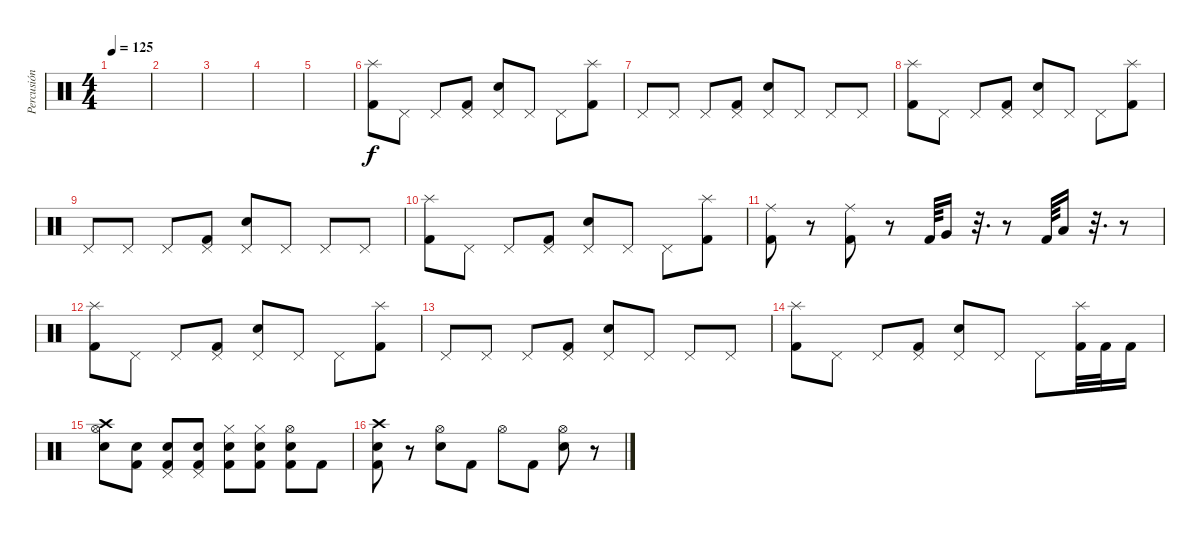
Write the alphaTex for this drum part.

\track ("Percusión" "Percusión") {instrument percussion}
\staff {score}
\articulation defaults
\ts (4 4)
\tempo 125
\clef neutral
\ks c
|
|
|
|
|
("Splash (hit)" "Kick (hit) 2").8 "Pedal Hi-Hat (hit)".8 "Pedal Hi-Hat (hit)".8 ("Pedal Hi-Hat (hit)" "Kick (hit) 2").8 ("Pedal Hi-Hat (hit)" "Electric Snare (hit)").8 "Pedal Hi-Hat (hit)".8 "Pedal Hi-Hat (hit)".8 ("Splash (hit)" "Kick (hit) 2").8 |
"Pedal Hi-Hat (hit)".8 "Pedal Hi-Hat (hit)".8 "Pedal Hi-Hat (hit)".8 ("Pedal Hi-Hat (hit)" "Kick (hit) 2").8 ("Pedal Hi-Hat (hit)" "Electric Snare (hit)").8 "Pedal Hi-Hat (hit)".8 "Pedal Hi-Hat (hit)".8 "Pedal Hi-Hat (hit)".8 |
("Splash (hit)" "Kick (hit) 2").8 "Pedal Hi-Hat (hit)".8 "Pedal Hi-Hat (hit)".8 ("Pedal Hi-Hat (hit)" "Kick (hit) 2").8 ("Pedal Hi-Hat (hit)" "Electric Snare (hit)").8 "Pedal Hi-Hat (hit)".8 "Pedal Hi-Hat (hit)".8 ("Splash (hit)" "Kick (hit) 2").8 |
"Pedal Hi-Hat (hit)".8 "Pedal Hi-Hat (hit)".8 "Pedal Hi-Hat (hit)".8 ("Pedal Hi-Hat (hit)" "Kick (hit) 2").8 ("Pedal Hi-Hat (hit)" "Electric Snare (hit)").8 "Pedal Hi-Hat (hit)".8 "Pedal Hi-Hat (hit)".8 "Pedal Hi-Hat (hit)".8 |
("Splash (hit)" "Kick (hit) 2").8 "Pedal Hi-Hat (hit)".8 "Pedal Hi-Hat (hit)".8 ("Pedal Hi-Hat (hit)" "Kick (hit) 2").8 ("Pedal Hi-Hat (hit)" "Electric Snare (hit)").8 "Pedal Hi-Hat (hit)".8 "Pedal Hi-Hat (hit)".8 ("Splash (hit)" "Kick (hit) 2").8 |
("Kick (hit) 2" "Ride (middle)").8 r.8 ("Kick (hit) 2" "Ride (middle)").8 r.8 "Kick (hit) 2".64 "Very Low Tom (hit)".16 r.32{d} r.8 "Kick (hit) 2".64 "Low Floor Tom (hit)".16 r.32{d} r.8 |
("Splash (hit)" "Kick (hit) 2").8 "Pedal Hi-Hat (hit)".8 "Pedal Hi-Hat (hit)".8 ("Pedal Hi-Hat (hit)" "Kick (hit) 2").8 ("Pedal Hi-Hat (hit)" "Electric Snare (hit)").8 "Pedal Hi-Hat (hit)".8 "Pedal Hi-Hat (hit)".8 ("Splash (hit)" "Kick (hit) 2").8 |
"Pedal Hi-Hat (hit)".8 "Pedal Hi-Hat (hit)".8 "Pedal Hi-Hat (hit)".8 ("Pedal Hi-Hat (hit)" "Kick (hit) 2").8 ("Pedal Hi-Hat (hit)" "Electric Snare (hit)").8 "Pedal Hi-Hat (hit)".8 "Pedal Hi-Hat (hit)".8 "Pedal Hi-Hat (hit)".8 |
("Splash (hit)" "Kick (hit) 2").8 "Pedal Hi-Hat (hit)".8 "Pedal Hi-Hat (hit)".8 ("Pedal Hi-Hat (hit)" "Kick (hit) 2").8 ("Pedal Hi-Hat (hit)" "Electric Snare (hit)").8 "Pedal Hi-Hat (hit)".8 "Pedal Hi-Hat (hit)".8 ("Splash (hit)" "Kick (hit) 2").32 "Kick (hit) 2".32 "Kick (hit) 2".16 |
("Crash high (hit)" "Electric Snare (hit)" "Hi-Hat (open)").8 ("Electric Snare (hit)" "Kick (hit) 2").8 ("Pedal Hi-Hat (hit)" "Electric Snare (hit)" "Kick (hit) 2").8 ("Pedal Hi-Hat (hit)" "Electric Snare (hit)" "Kick (hit) 2").8 ("Hi-Hat (closed)" "Electric Snare (hit)" "Kick (hit) 2").8 ("Hi-Hat (closed)" "Electric Snare (hit)" "Kick (hit) 2").8 ("Hi-Hat (open)" "Electric Snare (hit)" "Kick (hit) 2").8 "Kick (hit) 2".8 |
("Crash high (hit)" "Electric Snare (hit)" "Kick (hit) 2").8 r.8 ("Hi-Hat (open)" "Electric Snare (hit)").8 "Kick (hit) 2".8 "Hi-Hat (open)".8 "Kick (hit) 2".8 ("Hi-Hat (open)" "Electric Snare (hit)").8 r.8
